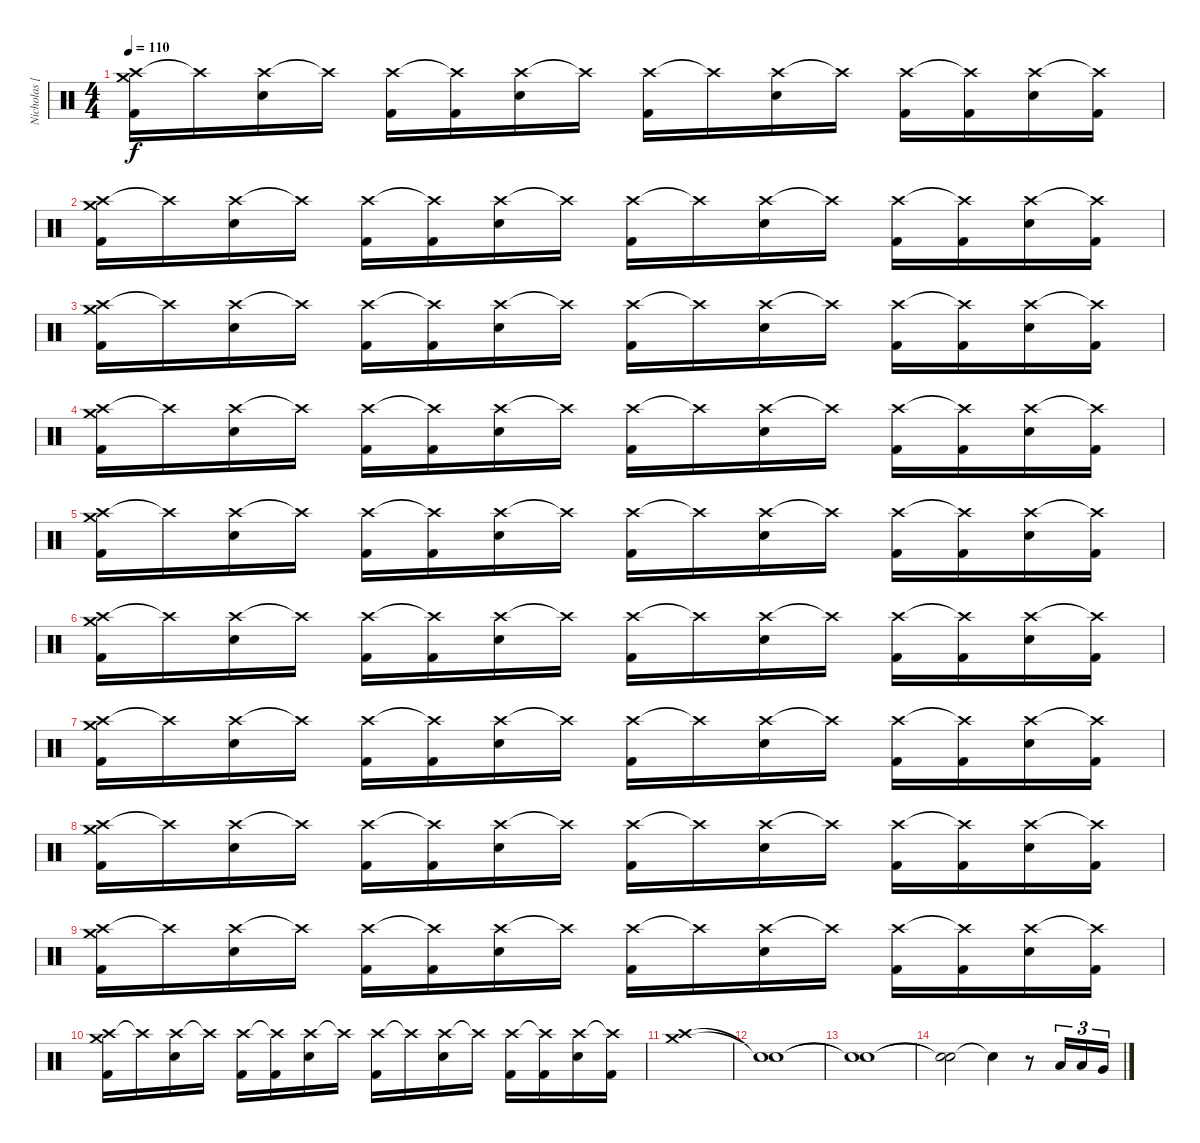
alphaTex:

\track ("Nicholas [Drums]" "Nicholas [") {instrument percussion}
\staff {score}
\articulation defaults
\ts (4 4)
\tempo 110
\clef neutral
\ks c
("Crash high (hit)" "Crash medium (hit)" "Kick (hit) 2").16{dy f} "Crash high (hit)"{t}.16 ("Crash high (hit)" "Snare (hit) 2").16 "Crash high (hit)"{t}.16 ("Crash high (hit)" "Kick (hit) 2").16 ("Crash high (hit)"{t} "Kick (hit) 2").16 ("Crash high (hit)" "Snare (hit) 2").16 "Crash high (hit)"{t}.16 ("Crash high (hit)" "Kick (hit) 2").16 "Crash high (hit)"{t}.16 ("Crash high (hit)" "Snare (hit) 2").16 "Crash high (hit)"{t}.16 ("Crash high (hit)" "Kick (hit) 2").16 ("Crash high (hit)"{t} "Kick (hit) 2").16 ("Crash high (hit)" "Snare (hit) 2").16 ("Crash high (hit)"{t} "Kick (hit) 2").16 |
("Crash high (hit)" "Crash medium (hit)" "Kick (hit) 2").16 "Crash high (hit)"{t}.16 ("Crash high (hit)" "Snare (hit) 2").16 "Crash high (hit)"{t}.16 ("Crash high (hit)" "Kick (hit) 2").16 ("Crash high (hit)"{t} "Kick (hit) 2").16 ("Crash high (hit)" "Snare (hit) 2").16 "Crash high (hit)"{t}.16 ("Crash high (hit)" "Kick (hit) 2").16 "Crash high (hit)"{t}.16 ("Crash high (hit)" "Snare (hit) 2").16 "Crash high (hit)"{t}.16 ("Crash high (hit)" "Kick (hit) 2").16 ("Crash high (hit)"{t} "Kick (hit) 2").16 ("Crash high (hit)" "Snare (hit) 2").16 ("Crash high (hit)"{t} "Kick (hit) 2").16 |
("Crash high (hit)" "Crash medium (hit)" "Kick (hit) 2").16 "Crash high (hit)"{t}.16 ("Crash high (hit)" "Snare (hit) 2").16 "Crash high (hit)"{t}.16 ("Crash high (hit)" "Kick (hit) 2").16 ("Crash high (hit)"{t} "Kick (hit) 2").16 ("Crash high (hit)" "Snare (hit) 2").16 "Crash high (hit)"{t}.16 ("Crash high (hit)" "Kick (hit) 2").16 "Crash high (hit)"{t}.16 ("Crash high (hit)" "Snare (hit) 2").16 "Crash high (hit)"{t}.16 ("Crash high (hit)" "Kick (hit) 2").16 ("Crash high (hit)"{t} "Kick (hit) 2").16 ("Crash high (hit)" "Snare (hit) 2").16 ("Crash high (hit)"{t} "Kick (hit) 2").16 |
("Crash high (hit)" "Crash medium (hit)" "Kick (hit) 2").16 "Crash high (hit)"{t}.16 ("Crash high (hit)" "Snare (hit) 2").16 "Crash high (hit)"{t}.16 ("Crash high (hit)" "Kick (hit) 2").16 ("Crash high (hit)"{t} "Kick (hit) 2").16 ("Crash high (hit)" "Snare (hit) 2").16 "Crash high (hit)"{t}.16 ("Crash high (hit)" "Kick (hit) 2").16 "Crash high (hit)"{t}.16 ("Crash high (hit)" "Snare (hit) 2").16 "Crash high (hit)"{t}.16 ("Crash high (hit)" "Kick (hit) 2").16 ("Crash high (hit)"{t} "Kick (hit) 2").16 ("Crash high (hit)" "Snare (hit) 2").16 ("Crash high (hit)"{t} "Kick (hit) 2").16 |
("Crash high (hit)" "Crash medium (hit)" "Kick (hit) 2").16 "Crash high (hit)"{t}.16 ("Crash high (hit)" "Snare (hit) 2").16 "Crash high (hit)"{t}.16 ("Crash high (hit)" "Kick (hit) 2").16 ("Crash high (hit)"{t} "Kick (hit) 2").16 ("Crash high (hit)" "Snare (hit) 2").16 "Crash high (hit)"{t}.16 ("Crash high (hit)" "Kick (hit) 2").16 "Crash high (hit)"{t}.16 ("Crash high (hit)" "Snare (hit) 2").16 "Crash high (hit)"{t}.16 ("Crash high (hit)" "Kick (hit) 2").16 ("Crash high (hit)"{t} "Kick (hit) 2").16 ("Crash high (hit)" "Snare (hit) 2").16 ("Crash high (hit)"{t} "Kick (hit) 2").16 |
("Crash high (hit)" "Crash medium (hit)" "Kick (hit) 2").16 "Crash high (hit)"{t}.16 ("Crash high (hit)" "Snare (hit) 2").16 "Crash high (hit)"{t}.16 ("Crash high (hit)" "Kick (hit) 2").16 ("Crash high (hit)"{t} "Kick (hit) 2").16 ("Crash high (hit)" "Snare (hit) 2").16 "Crash high (hit)"{t}.16 ("Crash high (hit)" "Kick (hit) 2").16 "Crash high (hit)"{t}.16 ("Crash high (hit)" "Snare (hit) 2").16 "Crash high (hit)"{t}.16 ("Crash high (hit)" "Kick (hit) 2").16 ("Crash high (hit)"{t} "Kick (hit) 2").16 ("Crash high (hit)" "Snare (hit) 2").16 ("Crash high (hit)"{t} "Kick (hit) 2").16 |
("Crash high (hit)" "Crash medium (hit)" "Kick (hit) 2").16 "Crash high (hit)"{t}.16 ("Crash high (hit)" "Snare (hit) 2").16 "Crash high (hit)"{t}.16 ("Crash high (hit)" "Kick (hit) 2").16 ("Crash high (hit)"{t} "Kick (hit) 2").16 ("Crash high (hit)" "Snare (hit) 2").16 "Crash high (hit)"{t}.16 ("Crash high (hit)" "Kick (hit) 2").16 "Crash high (hit)"{t}.16 ("Crash high (hit)" "Snare (hit) 2").16 "Crash high (hit)"{t}.16 ("Crash high (hit)" "Kick (hit) 2").16 ("Crash high (hit)"{t} "Kick (hit) 2").16 ("Crash high (hit)" "Snare (hit) 2").16 ("Crash high (hit)"{t} "Kick (hit) 2").16 |
("Crash high (hit)" "Crash medium (hit)" "Kick (hit) 2").16 "Crash high (hit)"{t}.16 ("Crash high (hit)" "Snare (hit) 2").16 "Crash high (hit)"{t}.16 ("Crash high (hit)" "Kick (hit) 2").16 ("Crash high (hit)"{t} "Kick (hit) 2").16 ("Crash high (hit)" "Snare (hit) 2").16 "Crash high (hit)"{t}.16 ("Crash high (hit)" "Kick (hit) 2").16 "Crash high (hit)"{t}.16 ("Crash high (hit)" "Snare (hit) 2").16 "Crash high (hit)"{t}.16 ("Crash high (hit)" "Kick (hit) 2").16 ("Crash high (hit)"{t} "Kick (hit) 2").16 ("Crash high (hit)" "Snare (hit) 2").16 ("Crash high (hit)"{t} "Kick (hit) 2").16 |
("Crash high (hit)" "Crash medium (hit)" "Kick (hit) 2").16 "Crash high (hit)"{t}.16 ("Crash high (hit)" "Snare (hit) 2").16 "Crash high (hit)"{t}.16 ("Crash high (hit)" "Kick (hit) 2").16 ("Crash high (hit)"{t} "Kick (hit) 2").16 ("Crash high (hit)" "Snare (hit) 2").16 "Crash high (hit)"{t}.16 ("Crash high (hit)" "Kick (hit) 2").16 "Crash high (hit)"{t}.16 ("Crash high (hit)" "Snare (hit) 2").16 "Crash high (hit)"{t}.16 ("Crash high (hit)" "Kick (hit) 2").16 ("Crash high (hit)"{t} "Kick (hit) 2").16 ("Crash high (hit)" "Snare (hit) 2").16 ("Crash high (hit)"{t} "Kick (hit) 2").16 |
("Crash high (hit)" "Crash medium (hit)" "Kick (hit) 2").16 "Crash high (hit)"{t}.16 ("Crash high (hit)" "Snare (hit) 2").16 "Crash high (hit)"{t}.16 ("Crash high (hit)" "Kick (hit) 2").16 ("Crash high (hit)"{t} "Kick (hit) 2").16 ("Crash high (hit)" "Snare (hit) 2").16 "Crash high (hit)"{t}.16 ("Crash high (hit)" "Kick (hit) 2").16 "Crash high (hit)"{t}.16 ("Crash high (hit)" "Snare (hit) 2").16 "Crash high (hit)"{t}.16 ("Crash high (hit)" "Kick (hit) 2").16 ("Crash high (hit)"{t} "Kick (hit) 2").16 ("Crash high (hit)" "Snare (hit) 2").16 ("Crash high (hit)"{t} "Kick (hit) 2").16 |
("Crash high (hit)" "Crash medium (hit)").1 |
("Snare (hit)"{t} "Snare (hit)"{t}).1 |
("Snare (hit)"{t} "Snare (hit)"{t}).1 |
("Snare (hit)"{t} "Snare (hit)"{t}).2 "Snare (hit)"{t}.4 r.8 "Low Tom (hit)".16{tu (3 2)} "Low Tom (hit)".16{tu (3 2)} "Very Low Tom (hit)".16{tu (3 2)}
